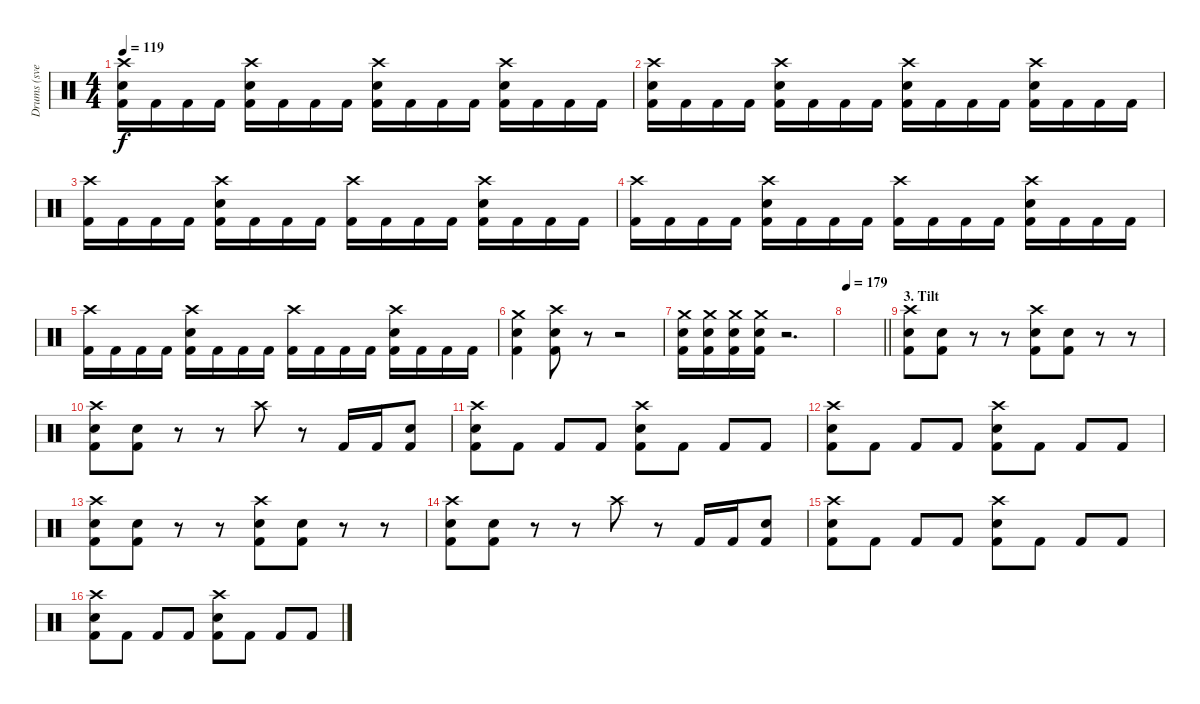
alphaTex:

\track ("Drums (svelle)" "Drums (sve") {instrument percussion}
\staff {score}
\articulation defaults
\ts (4 4)
\tempo 119
\clef neutral
\ks c
("Crash high (hit)" "Electric Snare (hit)" "Kick (hit) 2").16{dy f} "Kick (hit) 2".16 "Kick (hit) 2".16 "Kick (hit) 2".16 ("Crash high (hit)" "Electric Snare (hit)" "Kick (hit) 2").16 "Kick (hit) 2".16 "Kick (hit) 2".16 "Kick (hit) 2".16 ("Crash high (hit)" "Electric Snare (hit)" "Kick (hit) 2").16 "Kick (hit) 2".16 "Kick (hit) 2".16 "Kick (hit) 2".16 ("Crash high (hit)" "Electric Snare (hit)" "Kick (hit) 2").16 "Kick (hit) 2".16 "Kick (hit) 2".16 "Kick (hit) 2".16 |
("Crash high (hit)" "Electric Snare (hit)" "Kick (hit) 2").16 "Kick (hit) 2".16 "Kick (hit) 2".16 "Kick (hit) 2".16 ("Crash high (hit)" "Electric Snare (hit)" "Kick (hit) 2").16 "Kick (hit) 2".16 "Kick (hit) 2".16 "Kick (hit) 2".16 ("Crash high (hit)" "Electric Snare (hit)" "Kick (hit) 2").16 "Kick (hit) 2".16 "Kick (hit) 2".16 "Kick (hit) 2".16 ("Crash high (hit)" "Electric Snare (hit)" "Kick (hit) 2").16 "Kick (hit) 2".16 "Kick (hit) 2".16 "Kick (hit) 2".16 |
("Crash high (hit)" "Kick (hit) 2").16 "Kick (hit) 2".16 "Kick (hit) 2".16 "Kick (hit) 2".16 ("Crash high (hit)" "Electric Snare (hit)" "Kick (hit) 2").16 "Kick (hit) 2".16 "Kick (hit) 2".16 "Kick (hit) 2".16 ("Crash high (hit)" "Kick (hit) 2").16 "Kick (hit) 2".16 "Kick (hit) 2".16 "Kick (hit) 2".16 ("Crash high (hit)" "Electric Snare (hit)" "Kick (hit) 2").16 "Kick (hit) 2".16 "Kick (hit) 2".16 "Kick (hit) 2".16 |
("Crash high (hit)" "Kick (hit) 2").16 "Kick (hit) 2".16 "Kick (hit) 2".16 "Kick (hit) 2".16 ("Crash high (hit)" "Electric Snare (hit)" "Kick (hit) 2").16 "Kick (hit) 2".16 "Kick (hit) 2".16 "Kick (hit) 2".16 ("Crash high (hit)" "Kick (hit) 2").16 "Kick (hit) 2".16 "Kick (hit) 2".16 "Kick (hit) 2".16 ("Crash high (hit)" "Electric Snare (hit)" "Kick (hit) 2").16 "Kick (hit) 2".16 "Kick (hit) 2".16 "Kick (hit) 2".16 |
("Crash high (hit)" "Kick (hit) 2").16 "Kick (hit) 2".16 "Kick (hit) 2".16 "Kick (hit) 2".16 ("Crash high (hit)" "Electric Snare (hit)" "Kick (hit) 2").16 "Kick (hit) 2".16 "Kick (hit) 2".16 "Kick (hit) 2".16 ("Crash high (hit)" "Kick (hit) 2").16 "Kick (hit) 2".16 "Kick (hit) 2".16 "Kick (hit) 2".16 ("Crash high (hit)" "Electric Snare (hit)" "Kick (hit) 2").16 "Kick (hit) 2".16 "Kick (hit) 2".16 "Kick (hit) 2".16 |
("Crash medium (hit)" "Electric Snare (hit)" "Kick (hit) 2").4 ("Crash high (hit)" "Electric Snare (hit)" "Kick (hit) 2").8 r.8 r.2 |
("Crash medium (hit)" "Electric Snare (hit)" "Kick (hit) 2").16 ("Crash medium (hit)" "Electric Snare (hit)" "Kick (hit) 2").16 ("Crash medium (hit)" "Electric Snare (hit)" "Kick (hit) 2").16 ("Crash medium (hit)" "Electric Snare (hit)" "Kick (hit) 2").16 r.2{d} |
\tempo 179
\barLineRight lightlight
|
\section ("" "3. Tilt")
("Crash high (hit)" "Electric Snare (hit)" "Kick (hit) 2").8 ("Electric Snare (hit)" "Kick (hit) 2").8 r.8 r.8 ("Crash high (hit)" "Electric Snare (hit)" "Kick (hit) 2").8 ("Electric Snare (hit)" "Kick (hit) 2").8 r.8 r.8 |
("Crash high (hit)" "Electric Snare (hit)" "Kick (hit) 2").8 ("Electric Snare (hit)" "Kick (hit) 2").8 r.8 r.8 "Crash high (hit)".8 r.8 "Kick (hit) 2".16 "Kick (hit) 2".16 ("Electric Snare (hit)" "Kick (hit) 2").8 |
("Crash high (hit)" "Electric Snare (hit)" "Kick (hit) 2").8 "Kick (hit) 2".8 "Kick (hit) 2".8 "Kick (hit) 2".8 ("Crash high (hit)" "Electric Snare (hit)" "Kick (hit) 2").8 "Kick (hit) 2".8 "Kick (hit) 2".8 "Kick (hit) 2".8 |
("Crash high (hit)" "Electric Snare (hit)" "Kick (hit) 2").8 "Kick (hit) 2".8 "Kick (hit) 2".8 "Kick (hit) 2".8 ("Crash high (hit)" "Electric Snare (hit)" "Kick (hit) 2").8 "Kick (hit) 2".8 "Kick (hit) 2".8 "Kick (hit) 2".8 |
("Crash high (hit)" "Electric Snare (hit)" "Kick (hit) 2").8 ("Electric Snare (hit)" "Kick (hit) 2").8 r.8 r.8 ("Crash high (hit)" "Electric Snare (hit)" "Kick (hit) 2").8 ("Electric Snare (hit)" "Kick (hit) 2").8 r.8 r.8 |
("Crash high (hit)" "Electric Snare (hit)" "Kick (hit) 2").8 ("Electric Snare (hit)" "Kick (hit) 2").8 r.8 r.8 "Crash high (hit)".8 r.8 "Kick (hit) 2".16 "Kick (hit) 2".16 ("Electric Snare (hit)" "Kick (hit) 2").8 |
("Crash high (hit)" "Electric Snare (hit)" "Kick (hit) 2").8 "Kick (hit) 2".8 "Kick (hit) 2".8 "Kick (hit) 2".8 ("Crash high (hit)" "Electric Snare (hit)" "Kick (hit) 2").8 "Kick (hit) 2".8 "Kick (hit) 2".8 "Kick (hit) 2".8 |
("Crash high (hit)" "Electric Snare (hit)" "Kick (hit) 2").8 "Kick (hit) 2".8 "Kick (hit) 2".8 "Kick (hit) 2".8 ("Crash high (hit)" "Electric Snare (hit)" "Kick (hit) 2").8 "Kick (hit) 2".8 "Kick (hit) 2".8 "Kick (hit) 2".8
